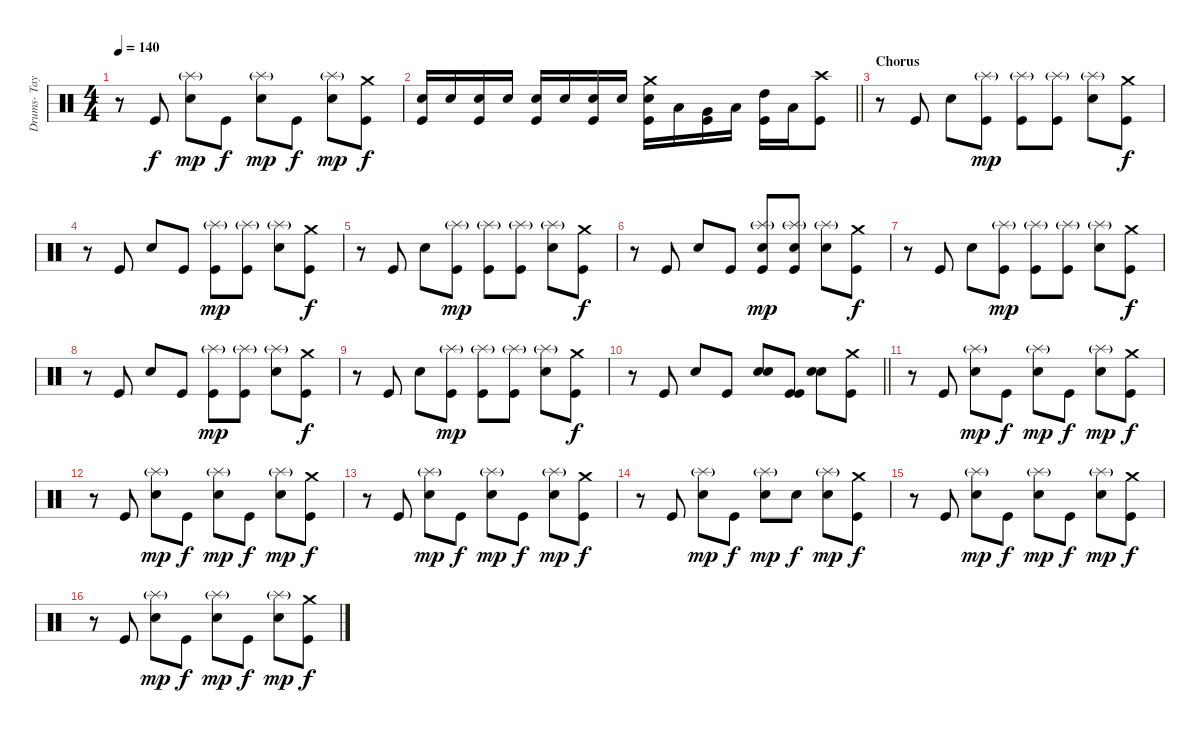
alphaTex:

\track ("Drums- Taylor Hawkins" "Drums- Tay") {instrument percussion}
\staff {score}
\articulation defaults
\ts (4 4)
\tempo 140
\clef neutral
\ks c
r.8{dy f} "Kick (hit)".8 ("Splash (hit)"{g} "Snare (hit) 2").8{dy mp} "Kick (hit)".8{dy f} ("Splash (hit)"{g} "Snare (hit) 2").8{dy mp} "Kick (hit)".8{dy f} ("Splash (hit)"{g} "Snare (hit) 2").8{dy mp} ("Crash medium (hit)" "Kick (hit)").8{dy f} |
\barLineRight lightlight
("Snare (hit) 2" "Kick (hit)").16 "Snare (hit) 2".16 ("Snare (hit) 2" "Kick (hit)").16 "Snare (hit) 2".16 ("Snare (hit) 2" "Kick (hit)").16 "Snare (hit) 2".16 ("Snare (hit) 2" "Kick (hit)").16 "Snare (hit) 2".16 ("Crash medium (hit)" "Snare (hit) 2" "Kick (hit)").16 "Low Tom (hit)".16 ("Very Low Tom (hit)" "Kick (hit)").16 "Low Floor Tom (hit)".16 ("High Tom (hit)" "Kick (hit)").16 "Low Floor Tom (hit)".16 ("Crash high (hit)" "Kick (hit)").8 |
\section ("" "Chorus")
r.8 "Kick (hit)".8 "Snare (hit) 2".8 ("Splash (hit)"{g} "Kick (hit)").8{dy mp} ("Splash (hit)"{g} "Kick (hit)").8 ("Splash (hit)"{g} "Kick (hit)").8 ("Splash (hit)"{g} "Snare (hit) 2").8 ("Crash medium (hit)" "Kick (hit)").8{dy f} |
r.8 "Kick (hit)".8 "Snare (hit) 2".8 "Kick (hit)".8 ("Splash (hit)"{g} "Kick (hit)").8{dy mp} ("Splash (hit)"{g} "Kick (hit)").8 ("Splash (hit)"{g} "Snare (hit) 2").8 ("Crash medium (hit)" "Kick (hit)").8{dy f} |
r.8 "Kick (hit)".8 "Snare (hit) 2".8 ("Splash (hit)"{g} "Kick (hit)").8{dy mp} ("Splash (hit)"{g} "Kick (hit)").8 ("Splash (hit)"{g} "Kick (hit)").8 ("Splash (hit)"{g} "Snare (hit) 2").8 ("Crash medium (hit)" "Kick (hit)").8{dy f} |
r.8 "Kick (hit)".8 "Snare (hit) 2".8 "Kick (hit)".8 ("Splash (hit)"{g} "Snare (hit) 2" "Kick (hit)").8{dy mp} ("Splash (hit)"{g} "Snare (hit) 2" "Kick (hit)").8 ("Splash (hit)"{g} "Snare (hit) 2").8 ("Crash medium (hit)" "Kick (hit)").8{dy f} |
r.8 "Kick (hit)".8 "Snare (hit) 2".8 ("Splash (hit)"{g} "Kick (hit)").8{dy mp} ("Splash (hit)"{g} "Kick (hit)").8 ("Splash (hit)"{g} "Kick (hit)").8 ("Splash (hit)"{g} "Snare (hit) 2").8 ("Crash medium (hit)" "Kick (hit)").8{dy f} |
r.8 "Kick (hit)".8 "Snare (hit) 2".8 "Kick (hit)".8 ("Splash (hit)"{g} "Kick (hit)").8{dy mp} ("Splash (hit)"{g} "Kick (hit)").8 ("Splash (hit)"{g} "Snare (hit) 2").8 ("Crash medium (hit)" "Kick (hit)").8{dy f} |
r.8 "Kick (hit)".8 "Snare (hit) 2".8 ("Splash (hit)"{g} "Kick (hit)").8{dy mp} ("Splash (hit)"{g} "Kick (hit)").8 ("Splash (hit)"{g} "Kick (hit)").8 ("Splash (hit)"{g} "Snare (hit) 2").8 ("Crash medium (hit)" "Kick (hit)").8{dy f} |
\barLineRight lightlight
r.8 "Kick (hit)".8 "Snare (hit) 2".8 "Kick (hit)".8 ("Electric Snare (hit)" "Snare (hit) 2").8 ("Kick (hit)" "Kick (hit)").8 ("Electric Snare (hit)" "Snare (hit) 2").8 ("Crash medium (hit)" "Kick (hit)").8 |
r.8 "Kick (hit)".8 ("Splash (hit)"{g} "Snare (hit) 2").8{dy mp} "Kick (hit)".8{dy f} ("Splash (hit)"{g} "Snare (hit) 2").8{dy mp} "Kick (hit)".8{dy f} ("Splash (hit)"{g} "Snare (hit) 2").8{dy mp} ("Crash medium (hit)" "Kick (hit)").8{dy f} |
r.8 "Kick (hit)".8 ("Splash (hit)"{g} "Snare (hit) 2").8{dy mp} "Kick (hit)".8{dy f} ("Splash (hit)"{g} "Snare (hit) 2").8{dy mp} "Kick (hit)".8{dy f} ("Splash (hit)"{g} "Snare (hit) 2").8{dy mp} ("Crash medium (hit)" "Kick (hit)").8{dy f} |
r.8 "Kick (hit)".8 ("Splash (hit)"{g} "Snare (hit) 2").8{dy mp} "Kick (hit)".8{dy f} ("Splash (hit)"{g} "Snare (hit) 2").8{dy mp} "Kick (hit)".8{dy f} ("Splash (hit)"{g} "Snare (hit) 2").8{dy mp} ("Crash medium (hit)" "Kick (hit)").8{dy f} |
r.8 "Kick (hit)".8 ("Splash (hit)"{g} "Snare (hit) 2").8{dy mp} "Kick (hit)".8{dy f} ("Splash (hit)"{g} "Snare (hit) 2").8{dy mp} "Snare (hit) 2".8{dy f} ("Splash (hit)"{g} "Snare (hit) 2").8{dy mp} ("Crash medium (hit)" "Kick (hit)").8{dy f} |
r.8 "Kick (hit)".8 ("Splash (hit)"{g} "Snare (hit) 2").8{dy mp} "Kick (hit)".8{dy f} ("Splash (hit)"{g} "Snare (hit) 2").8{dy mp} "Kick (hit)".8{dy f} ("Splash (hit)"{g} "Snare (hit) 2").8{dy mp} ("Crash medium (hit)" "Kick (hit)").8{dy f} |
r.8 "Kick (hit)".8 ("Splash (hit)"{g} "Snare (hit) 2").8{dy mp} "Kick (hit)".8{dy f} ("Splash (hit)"{g} "Snare (hit) 2").8{dy mp} "Kick (hit)".8{dy f} ("Splash (hit)"{g} "Snare (hit) 2").8{dy mp} ("Crash medium (hit)" "Kick (hit)").8{dy f}
